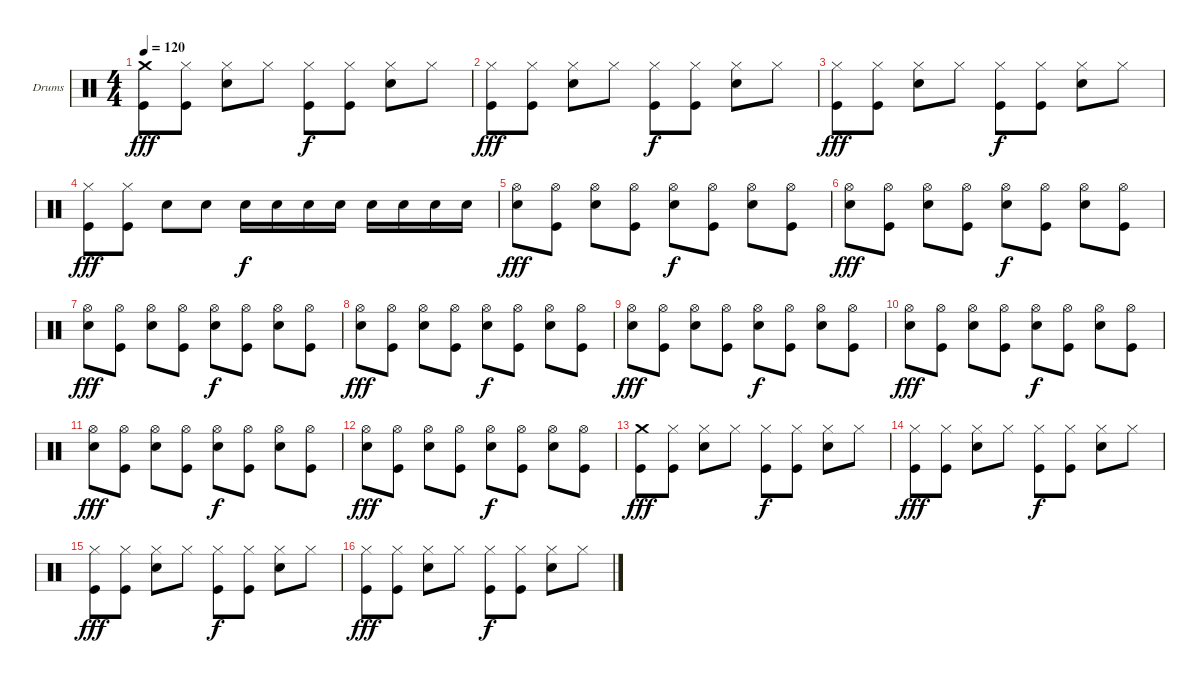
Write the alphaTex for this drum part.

\defaultSystemsLayout 4
\bracketExtendMode groupsimilarinstruments
\firstSystemTrackNameOrientation horizontal
\otherSystemsTrackNameOrientation horizontal
\track ("Drumkit" "Drums") {instrument percussion}
\staff {score}
\articulation defaults
\ts (4 4)
\tempo 120
\clef neutral
\ks c
("Crash medium (hit)" "Kick (hit)").8{dy fff} ("Hi-Hat (closed)" "Kick (hit)").8 ("Hi-Hat (closed)" "Snare (hit) 2").8 "Hi-Hat (closed)".8 ("Hi-Hat (closed)" "Kick (hit)").8{dy f} ("Hi-Hat (closed)" "Kick (hit)").8 ("Hi-Hat (closed)" "Snare (hit) 2").8 "Hi-Hat (closed)".8 |
("Hi-Hat (closed)" "Kick (hit)").8{dy fff} ("Hi-Hat (closed)" "Kick (hit)").8 ("Hi-Hat (closed)" "Snare (hit) 2").8 "Hi-Hat (closed)".8 ("Hi-Hat (closed)" "Kick (hit)").8{dy f} ("Hi-Hat (closed)" "Kick (hit)").8 ("Hi-Hat (closed)" "Snare (hit) 2").8 "Hi-Hat (closed)".8 |
("Hi-Hat (closed)" "Kick (hit)").8{dy fff} ("Hi-Hat (closed)" "Kick (hit)").8 ("Hi-Hat (closed)" "Snare (hit) 2").8 "Hi-Hat (closed)".8 ("Hi-Hat (closed)" "Kick (hit)").8{dy f} ("Hi-Hat (closed)" "Kick (hit)").8 ("Hi-Hat (closed)" "Snare (hit) 2").8 "Hi-Hat (closed)".8 |
("Hi-Hat (closed)" "Kick (hit)").8{dy fff} ("Hi-Hat (closed)" "Kick (hit)").8 "Snare (hit) 2".8 "Snare (hit) 2".8 "Snare (hit) 2".16{dy f} "Snare (hit) 2".16 "Snare (hit) 2".16 "Snare (hit) 2".16 "Snare (hit) 2".16 "Snare (hit) 2".16 "Snare (hit) 2".16 "Snare (hit) 2".16 |
("Hi-Hat (open)" "Snare (hit) 2").8{dy fff} ("Hi-Hat (open)" "Kick (hit)").8 ("Hi-Hat (open)" "Snare (hit) 2").8 ("Hi-Hat (open)" "Kick (hit)").8 ("Hi-Hat (open)" "Snare (hit) 2").8{dy f} ("Hi-Hat (open)" "Kick (hit)").8 ("Hi-Hat (open)" "Snare (hit) 2").8 ("Hi-Hat (open)" "Kick (hit)").8 |
("Hi-Hat (open)" "Snare (hit) 2").8{dy fff} ("Hi-Hat (open)" "Kick (hit)").8 ("Hi-Hat (open)" "Snare (hit) 2").8 ("Hi-Hat (open)" "Kick (hit)").8 ("Hi-Hat (open)" "Snare (hit) 2").8{dy f} ("Hi-Hat (open)" "Kick (hit)").8 ("Hi-Hat (open)" "Snare (hit) 2").8 ("Hi-Hat (open)" "Kick (hit)").8 |
("Hi-Hat (open)" "Snare (hit) 2").8{dy fff} ("Hi-Hat (open)" "Kick (hit)").8 ("Hi-Hat (open)" "Snare (hit) 2").8 ("Hi-Hat (open)" "Kick (hit)").8 ("Hi-Hat (open)" "Snare (hit) 2").8{dy f} ("Hi-Hat (open)" "Kick (hit)").8 ("Hi-Hat (open)" "Snare (hit) 2").8 ("Hi-Hat (open)" "Kick (hit)").8 |
("Hi-Hat (open)" "Snare (hit) 2").8{dy fff} ("Hi-Hat (open)" "Kick (hit)").8 ("Hi-Hat (open)" "Snare (hit) 2").8 ("Hi-Hat (open)" "Kick (hit)").8 ("Hi-Hat (open)" "Snare (hit) 2").8{dy f} ("Hi-Hat (open)" "Kick (hit)").8 ("Hi-Hat (open)" "Snare (hit) 2").8 ("Hi-Hat (open)" "Kick (hit)").8 |
("Hi-Hat (open)" "Snare (hit) 2").8{dy fff} ("Hi-Hat (open)" "Kick (hit)").8 ("Hi-Hat (open)" "Snare (hit) 2").8 ("Hi-Hat (open)" "Kick (hit)").8 ("Hi-Hat (open)" "Snare (hit) 2").8{dy f} ("Hi-Hat (open)" "Kick (hit)").8 ("Hi-Hat (open)" "Snare (hit) 2").8 ("Hi-Hat (open)" "Kick (hit)").8 |
("Hi-Hat (open)" "Snare (hit) 2").8{dy fff} ("Hi-Hat (open)" "Kick (hit)").8 ("Hi-Hat (open)" "Snare (hit) 2").8 ("Hi-Hat (open)" "Kick (hit)").8 ("Hi-Hat (open)" "Snare (hit) 2").8{dy f} ("Hi-Hat (open)" "Kick (hit)").8 ("Hi-Hat (open)" "Snare (hit) 2").8 ("Hi-Hat (open)" "Kick (hit)").8 |
("Hi-Hat (open)" "Snare (hit) 2").8{dy fff} ("Hi-Hat (open)" "Kick (hit)").8 ("Hi-Hat (open)" "Snare (hit) 2").8 ("Hi-Hat (open)" "Kick (hit)").8 ("Hi-Hat (open)" "Snare (hit) 2").8{dy f} ("Hi-Hat (open)" "Kick (hit)").8 ("Hi-Hat (open)" "Snare (hit) 2").8 ("Hi-Hat (open)" "Kick (hit)").8 |
("Hi-Hat (open)" "Snare (hit) 2").8{dy fff} ("Hi-Hat (open)" "Kick (hit)").8 ("Hi-Hat (open)" "Snare (hit) 2").8 ("Hi-Hat (open)" "Kick (hit)").8 ("Hi-Hat (open)" "Snare (hit) 2").8{dy f} ("Hi-Hat (open)" "Kick (hit)").8 ("Hi-Hat (open)" "Snare (hit) 2").8 ("Hi-Hat (open)" "Kick (hit)").8 |
("Crash medium (hit)" "Kick (hit)").8{dy fff} ("Hi-Hat (closed)" "Kick (hit)").8 ("Hi-Hat (closed)" "Snare (hit) 2").8 "Hi-Hat (closed)".8 ("Hi-Hat (closed)" "Kick (hit)").8{dy f} ("Hi-Hat (closed)" "Kick (hit)").8 ("Hi-Hat (closed)" "Snare (hit) 2").8 "Hi-Hat (closed)".8 |
("Hi-Hat (closed)" "Kick (hit)").8{dy fff} ("Hi-Hat (closed)" "Kick (hit)").8 ("Hi-Hat (closed)" "Snare (hit) 2").8 "Hi-Hat (closed)".8 ("Hi-Hat (closed)" "Kick (hit)").8{dy f} ("Hi-Hat (closed)" "Kick (hit)").8 ("Hi-Hat (closed)" "Snare (hit) 2").8 "Hi-Hat (closed)".8 |
("Hi-Hat (closed)" "Kick (hit)").8{dy fff} ("Hi-Hat (closed)" "Kick (hit)").8 ("Hi-Hat (closed)" "Snare (hit) 2").8 "Hi-Hat (closed)".8 ("Hi-Hat (closed)" "Kick (hit)").8{dy f} ("Hi-Hat (closed)" "Kick (hit)").8 ("Hi-Hat (closed)" "Snare (hit) 2").8 "Hi-Hat (closed)".8 |
("Hi-Hat (closed)" "Kick (hit)").8{dy fff} ("Hi-Hat (closed)" "Kick (hit)").8 ("Hi-Hat (closed)" "Snare (hit) 2").8 "Hi-Hat (closed)".8 ("Hi-Hat (closed)" "Kick (hit)").8{dy f} ("Hi-Hat (closed)" "Kick (hit)").8 ("Hi-Hat (closed)" "Snare (hit) 2").8 "Hi-Hat (closed)".8
